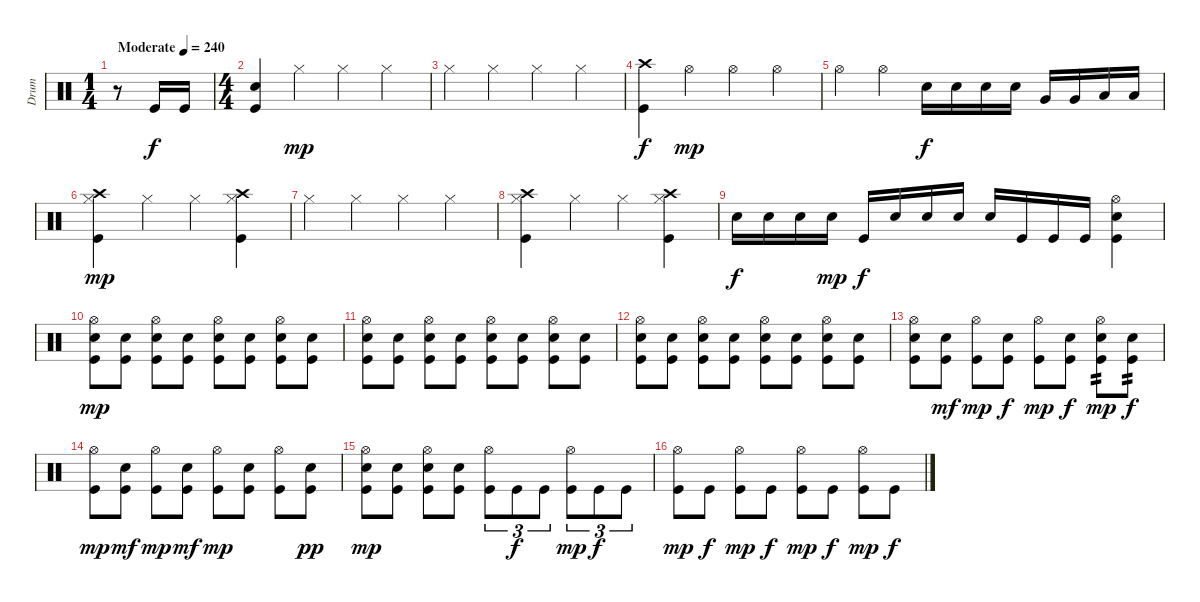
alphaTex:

\track ("Drum" "Drum") {instrument percussion}
\staff {score}
\articulation defaults
\ts (1 4)
\tempo (240 "Moderate")
\clef neutral
\ks c
r.8{dy f} "Kick (hit)".16 "Kick (hit)".16 |
\ts (4 4)
("Electric Snare (hit)" "Kick (hit)").4 "Hi-Hat (closed)".4{dy mp} "Hi-Hat (closed)".4 "Hi-Hat (closed)".4 |
"Hi-Hat (closed)".4 "Hi-Hat (closed)".4 "Hi-Hat (closed)".4 "Hi-Hat (closed)".4 |
("Crash high (hit)" "Kick (hit)").4{dy f} "Hi-Hat (open)".4{dy mp} "Hi-Hat (open)".4 "Hi-Hat (open)".4 |
"Hi-Hat (open)".4 "Hi-Hat (open)".4 "Electric Snare (hit)".16{dy f} "Electric Snare (hit)".16 "Electric Snare (hit)".16 "Electric Snare (hit)".16 "Very Low Tom (hit)".16 "Very Low Tom (hit)".16 "Low Floor Tom (hit)".16 "Low Floor Tom (hit)".16 |
("Crash high (hit)" "Hi-Hat (closed)" "Kick (hit)").4{dy mp} "Hi-Hat (closed)".4 "Hi-Hat (closed)".4 ("Crash high (hit)" "Hi-Hat (closed)" "Kick (hit)").4 |
"Hi-Hat (closed)".4 "Hi-Hat (closed)".4 "Hi-Hat (closed)".4 "Hi-Hat (closed)".4 |
("Crash high (hit)" "Hi-Hat (closed)" "Kick (hit)").4 "Hi-Hat (closed)".4 "Hi-Hat (closed)".4 ("Crash high (hit)" "Hi-Hat (closed)" "Kick (hit)").4 |
"Electric Snare (hit)".16{dy f} "Electric Snare (hit)".16 "Electric Snare (hit)".16 "Electric Snare (hit)".16{dy mp} "Kick (hit)".16{dy f} "Electric Snare (hit)".16 "Electric Snare (hit)".16 "Electric Snare (hit)".16 "Electric Snare (hit)".16 "Kick (hit)".16 "Kick (hit)".16 "Kick (hit)".16 ("Hi-Hat (open)" "Electric Snare (hit)" "Kick (hit)").4 |
("Hi-Hat (open)" "Electric Snare (hit)" "Kick (hit)").8{dy mp} ("Electric Snare (hit)" "Kick (hit)").8 ("Hi-Hat (open)" "Electric Snare (hit)" "Kick (hit)").8 ("Electric Snare (hit)" "Kick (hit)").8 ("Hi-Hat (open)" "Electric Snare (hit)" "Kick (hit)").8 ("Electric Snare (hit)" "Kick (hit)").8 ("Hi-Hat (open)" "Electric Snare (hit)" "Kick (hit)").8 ("Electric Snare (hit)" "Kick (hit)").8 |
("Hi-Hat (open)" "Electric Snare (hit)" "Kick (hit)").8 ("Electric Snare (hit)" "Kick (hit)").8 ("Hi-Hat (open)" "Electric Snare (hit)" "Kick (hit)").8 ("Electric Snare (hit)" "Kick (hit)").8 ("Hi-Hat (open)" "Electric Snare (hit)" "Kick (hit)").8 ("Electric Snare (hit)" "Kick (hit)").8 ("Hi-Hat (open)" "Electric Snare (hit)" "Kick (hit)").8 ("Electric Snare (hit)" "Kick (hit)").8 |
("Hi-Hat (open)" "Electric Snare (hit)" "Kick (hit)").8 ("Electric Snare (hit)" "Kick (hit)").8 ("Hi-Hat (open)" "Electric Snare (hit)" "Kick (hit)").8 ("Electric Snare (hit)" "Kick (hit)").8 ("Hi-Hat (open)" "Electric Snare (hit)" "Kick (hit)").8 ("Electric Snare (hit)" "Kick (hit)").8 ("Hi-Hat (open)" "Electric Snare (hit)" "Kick (hit)").8 ("Electric Snare (hit)" "Kick (hit)").8 |
("Hi-Hat (open)" "Electric Snare (hit)" "Kick (hit)").8 ("Electric Snare (hit)" "Kick (hit)").8{dy mf} ("Hi-Hat (open)" "Kick (hit)").8{dy mp} ("Electric Snare (hit)" "Kick (hit)").8{dy f} ("Hi-Hat (open)" "Kick (hit)").8{dy mp} ("Electric Snare (hit)" "Kick (hit)").8{dy f} ("Hi-Hat (open)" "Electric Snare (hit)" "Kick (hit)").8{tp 2 dy mp} ("Electric Snare (hit)" "Kick (hit)").8{tp 2 dy f} |
("Hi-Hat (open)" "Kick (hit)").8{dy mp} ("Electric Snare (hit)" "Kick (hit)").8{dy mf} ("Hi-Hat (open)" "Kick (hit)").8{dy mp} ("Electric Snare (hit)" "Kick (hit)").8{dy mf} ("Hi-Hat (open)" "Kick (hit)").8{dy mp} ("Electric Snare (hit)" "Kick (hit)").8 ("Hi-Hat (open)" "Kick (hit)").8 ("Electric Snare (hit)" "Kick (hit)").8{dy pp} |
("Hi-Hat (open)" "Electric Snare (hit)" "Kick (hit)").8{dy mp} ("Electric Snare (hit)" "Kick (hit)").8 ("Hi-Hat (open)" "Electric Snare (hit)" "Kick (hit)").8 ("Electric Snare (hit)" "Kick (hit)").8 ("Hi-Hat (open)" "Kick (hit)").8{tu (3 2)} "Kick (hit)".8{tu (3 2) dy f} "Kick (hit)".8{tu (3 2)} ("Hi-Hat (open)" "Kick (hit)").8{tu (3 2) dy mp} "Kick (hit)".8{tu (3 2) dy f} "Kick (hit)".8{tu (3 2)} |
("Hi-Hat (open)" "Kick (hit)").8{dy mp} "Kick (hit)".8{dy f} ("Hi-Hat (open)" "Kick (hit)").8{dy mp} "Kick (hit)".8{dy f} ("Hi-Hat (open)" "Kick (hit)").8{dy mp} "Kick (hit)".8{dy f} ("Hi-Hat (open)" "Kick (hit)").8{dy mp} "Kick (hit)".8{dy f}
